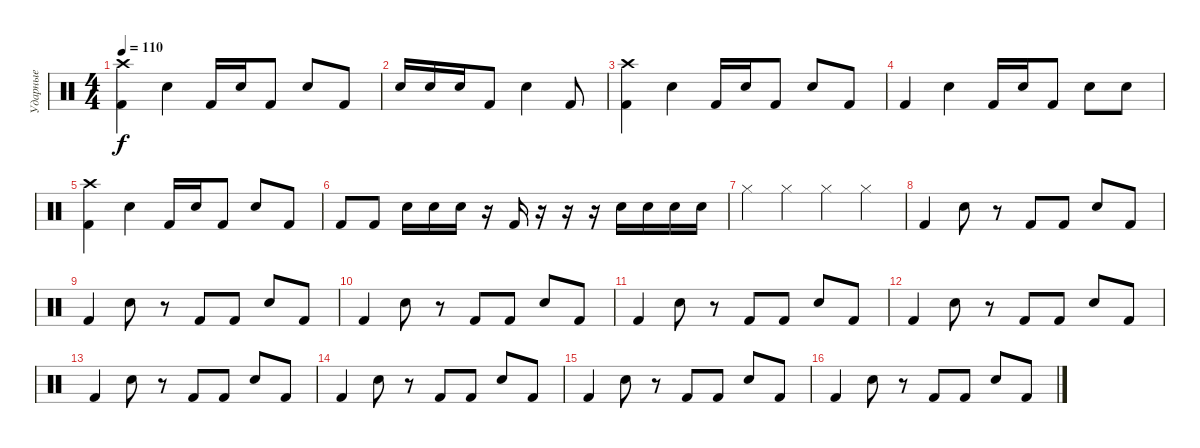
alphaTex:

\track ("Ударные" "Ударные") {instrument percussion}
\staff {score}
\articulation defaults
\ts (4 4)
\tempo 110
\clef neutral
\ks c
("Crash high (hit)" "Kick (hit) 2").4{dy f} "Electric Snare (hit)".4 "Kick (hit) 2".16 "Electric Snare (hit)".16 "Kick (hit) 2".8 "Electric Snare (hit)".8 "Kick (hit) 2".8 |
"Electric Snare (hit)".16 "Electric Snare (hit)".16 "Electric Snare (hit)".16 "Kick (hit) 2".8 "Electric Snare (hit)".4 "Kick (hit) 2".8 |
("Crash high (hit)" "Kick (hit) 2").4 "Electric Snare (hit)".4 "Kick (hit) 2".16 "Electric Snare (hit)".16 "Kick (hit) 2".8 "Electric Snare (hit)".8 "Kick (hit) 2".8 |
"Kick (hit) 2".4 "Electric Snare (hit)".4 "Kick (hit) 2".16 "Electric Snare (hit)".16 "Kick (hit) 2".8 "Electric Snare (hit)".8 "Electric Snare (hit)".8 |
("Crash high (hit)" "Kick (hit) 2").4 "Electric Snare (hit)".4 "Kick (hit) 2".16 "Electric Snare (hit)".16 "Kick (hit) 2".8 "Electric Snare (hit)".8 "Kick (hit) 2".8 |
"Kick (hit) 2".8 "Kick (hit) 2".8 "Electric Snare (hit)".16 "Electric Snare (hit)".16 "Electric Snare (hit)".16 r.16 "Kick (hit) 2".16 r.16 r.16 r.16 "Electric Snare (hit)".16 "Electric Snare (hit)".16 "Electric Snare (hit)".16 "Electric Snare (hit)".16 |
"Hi-Hat (closed)".4 "Hi-Hat (closed)".4 "Hi-Hat (closed)".4 "Hi-Hat (closed)".4 |
"Kick (hit) 2".4 "Electric Snare (hit)".8 r.8 "Kick (hit) 2".8 "Kick (hit) 2".8 "Electric Snare (hit)".8 "Kick (hit) 2".8 |
"Kick (hit) 2".4 "Electric Snare (hit)".8 r.8 "Kick (hit) 2".8 "Kick (hit) 2".8 "Electric Snare (hit)".8 "Kick (hit) 2".8 |
"Kick (hit) 2".4 "Electric Snare (hit)".8 r.8 "Kick (hit) 2".8 "Kick (hit) 2".8 "Electric Snare (hit)".8 "Kick (hit) 2".8 |
"Kick (hit) 2".4 "Electric Snare (hit)".8 r.8 "Kick (hit) 2".8 "Kick (hit) 2".8 "Electric Snare (hit)".8 "Kick (hit) 2".8 |
"Kick (hit) 2".4 "Electric Snare (hit)".8 r.8 "Kick (hit) 2".8 "Kick (hit) 2".8 "Electric Snare (hit)".8 "Kick (hit) 2".8 |
"Kick (hit) 2".4 "Electric Snare (hit)".8 r.8 "Kick (hit) 2".8 "Kick (hit) 2".8 "Electric Snare (hit)".8 "Kick (hit) 2".8 |
"Kick (hit) 2".4 "Electric Snare (hit)".8 r.8 "Kick (hit) 2".8 "Kick (hit) 2".8 "Electric Snare (hit)".8 "Kick (hit) 2".8 |
"Kick (hit) 2".4 "Electric Snare (hit)".8 r.8 "Kick (hit) 2".8 "Kick (hit) 2".8 "Electric Snare (hit)".8 "Kick (hit) 2".8 |
"Kick (hit) 2".4 "Electric Snare (hit)".8 r.8 "Kick (hit) 2".8 "Kick (hit) 2".8 "Electric Snare (hit)".8 "Kick (hit) 2".8
